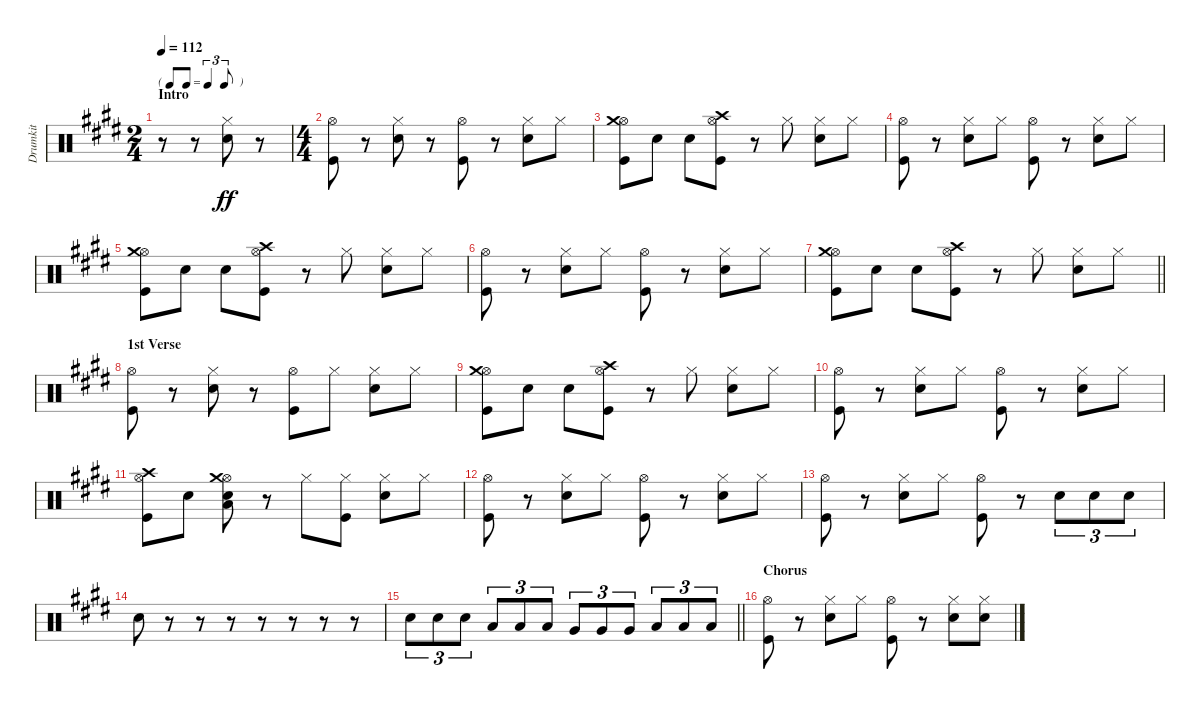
\track ("Drumkit" "Drumkit") {instrument percussion}
\staff {score}
\articulation defaults
\ts (2 4)
\tf triplet8th
\section ("" "Intro")
\tempo 112
\clef neutral
\ks e
r.8{dy ff} r.8 ("Snare (hit) 2" "Hi-Hat (closed)").8 r.8 |
\ts (4 4)
("Hi-Hat (open)" "Kick (hit)").8 r.8 ("Snare (hit) 2" "Hi-Hat (closed)").8 r.8 ("Kick (hit)" "Hi-Hat (open)").8 r.8 ("Snare (hit) 2" "Hi-Hat (closed)").8 "Hi-Hat (closed)".8 |
("Kick (hit)" "Hi-Hat (open)" "Crash medium (hit)").8 "Snare (hit) 2".8 "Snare (hit) 2".8 ("Kick (hit)" "Hi-Hat (open)" "Crash high (hit)").8 r.8 "Hi-Hat (closed)".8 ("Snare (hit) 2" "Hi-Hat (closed)").8 "Hi-Hat (closed)".8 |
("Hi-Hat (open)" "Kick (hit)").8 r.8 ("Snare (hit) 2" "Hi-Hat (closed)").8 "Hi-Hat (closed)".8 ("Kick (hit)" "Hi-Hat (open)").8 r.8 ("Snare (hit) 2" "Hi-Hat (closed)").8 "Hi-Hat (closed)".8 |
("Kick (hit)" "Hi-Hat (open)" "Crash medium (hit)").8 "Snare (hit) 2".8 "Snare (hit) 2".8 ("Kick (hit)" "Hi-Hat (open)" "Crash high (hit)").8 r.8 "Hi-Hat (closed)".8 ("Snare (hit) 2" "Hi-Hat (closed)").8 "Hi-Hat (closed)".8 |
("Hi-Hat (open)" "Kick (hit)").8 r.8 ("Snare (hit) 2" "Hi-Hat (closed)").8 "Hi-Hat (closed)".8 ("Kick (hit)" "Hi-Hat (open)").8 r.8 ("Snare (hit) 2" "Hi-Hat (closed)").8 "Hi-Hat (closed)".8 |
\barLineRight lightlight
("Kick (hit)" "Hi-Hat (open)" "Crash medium (hit)").8 "Snare (hit) 2".8 "Snare (hit) 2".8 ("Kick (hit)" "Hi-Hat (open)" "Crash high (hit)").8 r.8 "Hi-Hat (closed)".8 ("Snare (hit) 2" "Hi-Hat (closed)").8 "Hi-Hat (closed)".8 |
\section ("" "1st Verse")
("Hi-Hat (open)" "Kick (hit)").8 r.8 ("Snare (hit) 2" "Hi-Hat (closed)").8 r.8 ("Kick (hit)" "Hi-Hat (open)").8 "Hi-Hat (closed)".8 ("Snare (hit) 2" "Hi-Hat (closed)").8 "Hi-Hat (closed)".8 |
("Kick (hit)" "Hi-Hat (open)" "Crash medium (hit)").8 "Snare (hit) 2".8 "Snare (hit) 2".8 ("Kick (hit)" "Crash high (hit)" "Hi-Hat (open)").8 r.8 "Hi-Hat (closed)".8 ("Snare (hit) 2" "Hi-Hat (closed)").8 "Hi-Hat (closed)".8 |
("Hi-Hat (open)" "Kick (hit)").8 r.8 ("Snare (hit) 2" "Hi-Hat (closed)").8 "Hi-Hat (closed)".8 ("Kick (hit)" "Hi-Hat (open)").8 r.8 ("Snare (hit) 2" "Hi-Hat (closed)").8 "Hi-Hat (closed)".8 |
("Kick (hit)" "Hi-Hat (open)" "Crash high (hit)").8 "Snare (hit) 2".8 ("Hi-Hat (open)" "Snare (hit) 2" "Low Floor Tom (hit)" "Crash medium (hit)").8 r.8 "Hi-Hat (closed)".8 ("Hi-Hat (closed)" "Kick (hit)").8 ("Snare (hit) 2" "Hi-Hat (closed)").8 "Hi-Hat (closed)".8 |
("Hi-Hat (open)" "Kick (hit)").8 r.8 ("Snare (hit) 2" "Hi-Hat (closed)").8 "Hi-Hat (closed)".8 ("Kick (hit)" "Hi-Hat (open)").8 r.8 ("Snare (hit) 2" "Hi-Hat (closed)").8 "Hi-Hat (closed)".8 |
("Hi-Hat (open)" "Kick (hit)").8 r.8 ("Snare (hit) 2" "Hi-Hat (closed)").8 "Hi-Hat (closed)".8 ("Kick (hit)" "Hi-Hat (open)").8 r.8 "Snare (hit) 2".8{tu (3 2)} "Snare (hit) 2".8{tu (3 2)} "Snare (hit) 2".8{tu (3 2)} |
"Snare (hit) 2".8 r.8 r.8 r.8 r.8 r.8 r.8 r.8 |
\barLineRight lightlight "Snare (hit) 2".8{tu (3 2)} "Snare (hit) 2".8{tu (3 2)} "Snare (hit) 2".8{tu (3 2)} "Low Tom (hit)".8{tu (3 2)} "Low Tom (hit)".8{tu (3 2)} "Low Tom (hit)".8{tu (3 2)} "Very Low Tom (hit)".8{tu (3 2)} "Very Low Tom (hit)".8{tu (3 2)} "Very Low Tom (hit)".8{tu (3 2)} "Low Floor Tom (hit)".8{tu (3 2)} "Low Floor Tom (hit)".8{tu (3 2)} "Low Floor Tom (hit)".8{tu (3 2)}
|
\section ("" "Chorus")
("Hi-Hat (open)" "Kick (hit)").8 r.8 ("Snare (hit) 2" "Hi-Hat (closed)").8 "Hi-Hat (closed)".8 ("Kick (hit)" "Hi-Hat (open)").8 r.8 ("Snare (hit) 2" "Hi-Hat (closed)").8 ("Hi-Hat (closed)" "Snare (hit) 2").8
